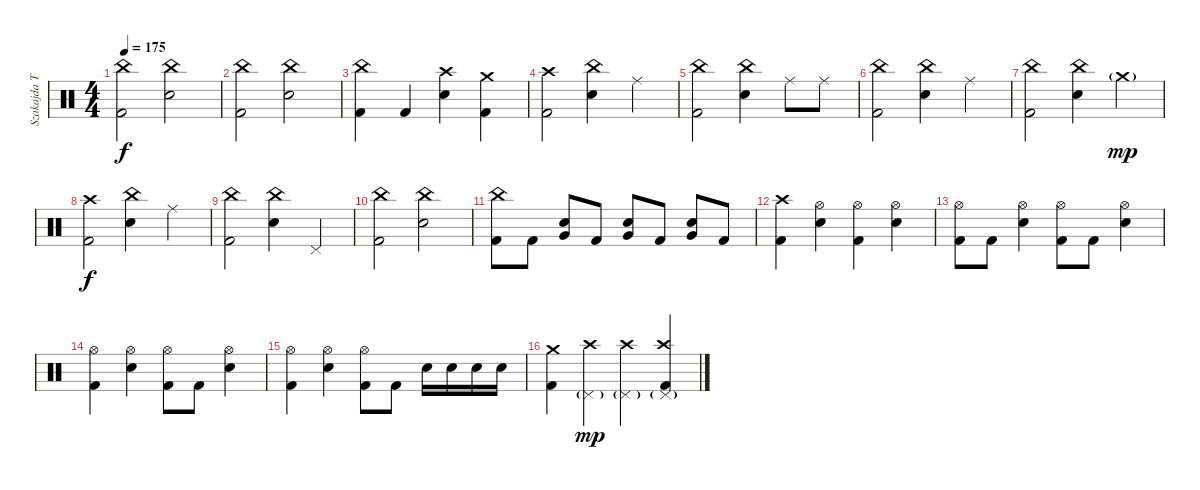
\track ("Szakajda Tibi" "Szakajda T") {instrument percussion}
\staff {score}
\articulation defaults
\ts (4 4)
\tempo 175
\clef neutral
\ks c
("China (hit)" "Kick (hit) 2").2{dy f} ("China (hit)" "Snare (hit) 2").2 |
("China (hit)" "Kick (hit) 2").2 ("China (hit)" "Snare (hit) 2").2 |
("China (hit)" "Kick (hit) 2").4 "Kick (hit) 2".4 ("Crash high (hit)" "Snare (hit) 2").4 ("Crash medium (hit)" "Kick (hit) 2").4 |
("Crash high (hit)" "Kick (hit) 2").2 ("China (hit)" "Snare (hit) 2").4 "Ride (middle)".4 |
("China (hit)" "Kick (hit) 2").2 ("China (hit)" "Snare (hit) 2").4 "Ride (middle)".8 "Ride (middle)".8 |
("China (hit)" "Kick (hit) 2").2 ("China (hit)" "Snare (hit) 2").4 "Ride (middle)".4 |
("China (hit)" "Kick (hit) 2").2 ("China (hit)" "Snare (hit) 2").4 "Crash medium (hit)"{g}.4{dy mp} |
("Crash high (hit)" "Kick (hit) 2").2{dy f} ("China (hit)" "Snare (hit) 2").4 "Ride (middle)".4 |
("China (hit)" "Kick (hit) 2").2 ("China (hit)" "Snare (hit) 2").4 "Pedal Hi-Hat (hit)".4 |
("China (hit)" "Kick (hit) 2").2 ("China (hit)" "Snare (hit) 2").2 |
("China (hit)" "Kick (hit) 2").8 "Kick (hit) 2".8 ("Very Low Tom (hit)" "Snare (hit) 2").8 "Kick (hit) 2".8 ("Very Low Tom (hit)" "Snare (hit) 2").8 "Kick (hit) 2".8 ("Very Low Tom (hit)" "Snare (hit) 2").8 "Kick (hit) 2".8 |
("Crash high (hit)" "Kick (hit) 2").4 ("Hi-Hat (open)" "Snare (hit) 2").4 ("Hi-Hat (open)" "Kick (hit) 2").4 ("Hi-Hat (open)" "Snare (hit) 2").4 |
("Hi-Hat (open)" "Kick (hit) 2").8 "Kick (hit) 2".8 ("Hi-Hat (open)" "Snare (hit) 2").4 ("Hi-Hat (open)" "Kick (hit) 2").8 "Kick (hit) 2".8 ("Hi-Hat (open)" "Snare (hit) 2").4 |
("Hi-Hat (open)" "Kick (hit) 2").4 ("Hi-Hat (open)" "Snare (hit) 2").4 ("Hi-Hat (open)" "Kick (hit) 2").8 "Kick (hit) 2".8 ("Hi-Hat (open)" "Snare (hit) 2").4 |
("Hi-Hat (open)" "Kick (hit) 2").4 ("Hi-Hat (open)" "Snare (hit) 2").4 ("Hi-Hat (open)" "Kick (hit) 2").8 "Kick (hit) 2".8 "Snare (hit) 2".16 "Snare (hit) 2".16 "Snare (hit) 2".16 "Snare (hit) 2".16 |
("Crash medium (hit)" "Kick (hit) 2").4 ("Crash high (hit)" "Pedal Hi-Hat (hit)"{g}).4{dy mp} ("Crash high (hit)" "Pedal Hi-Hat (hit)"{g}).4 ("Crash high (hit)" "Pedal Hi-Hat (hit)"{g} "Kick (hit) 2").4
